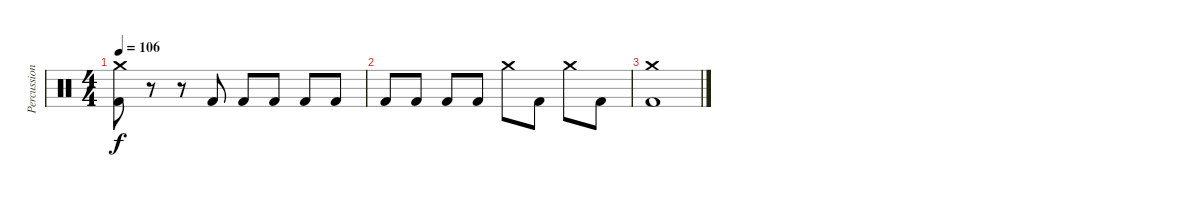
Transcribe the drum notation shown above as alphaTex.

\track ("Percussion" "Percussion") {instrument percussion}
\staff {score}
\articulation defaults
\ts (4 4)
\tempo 106
\clef neutral
\ks c
("Kick (hit) 2" "Crash medium (hit)").8{dy f} r.8 r.8 "Kick (hit) 2".8 "Kick (hit) 2".8 "Kick (hit) 2".8 "Kick (hit) 2".8 "Kick (hit) 2".8 |
"Kick (hit) 2".8 "Kick (hit) 2".8 "Kick (hit) 2".8 "Kick (hit) 2".8 "Crash medium (hit)".8 "Kick (hit) 2".8 "Crash medium (hit)".8 "Kick (hit) 2".8 |
("Crash medium (hit)" "Kick (hit) 2").1
